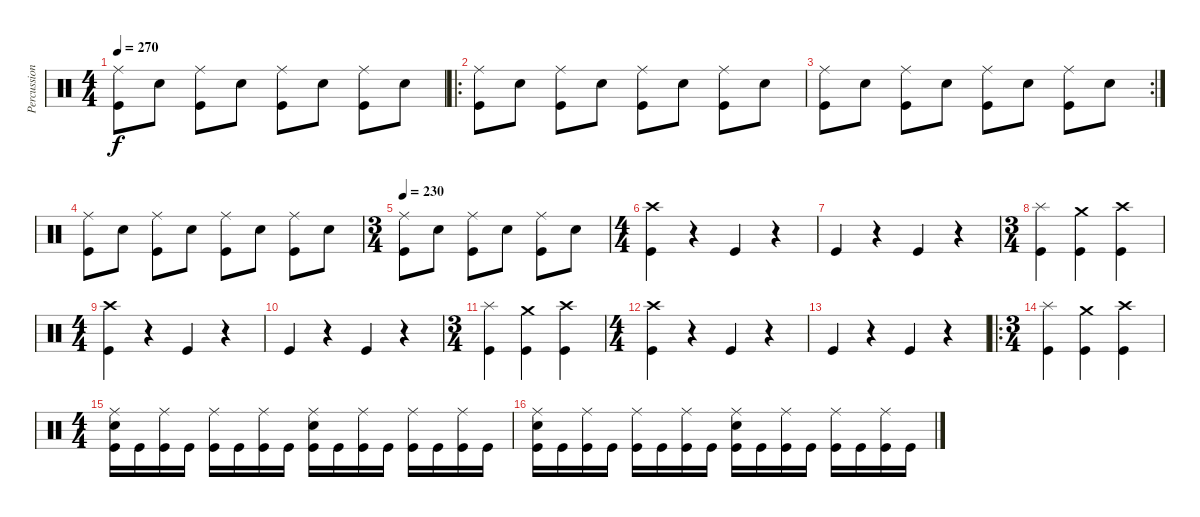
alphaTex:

\track ("Percussion" "Percussion") {instrument percussion}
\staff {score}
\articulation defaults
\ts (4 4)
\tempo 270
\clef neutral
\ks c
("Ride (middle)" "Kick (hit)").8{dy f} "Snare (hit) 2".8 ("Ride (middle)" "Kick (hit)").8 "Snare (hit) 2".8 ("Ride (middle)" "Kick (hit)").8 "Snare (hit) 2".8 ("Ride (middle)" "Kick (hit)").8 "Snare (hit) 2".8 |
\ro
("Ride (middle)" "Kick (hit)").8 "Snare (hit) 2".8 ("Ride (middle)" "Kick (hit)").8 "Snare (hit) 2".8 ("Ride (middle)" "Kick (hit)").8 "Snare (hit) 2".8 ("Ride (middle)" "Kick (hit)").8 "Snare (hit) 2".8 |
\rc 2
("Ride (middle)" "Kick (hit)").8 "Snare (hit) 2".8 ("Ride (middle)" "Kick (hit)").8 "Snare (hit) 2".8 ("Ride (middle)" "Kick (hit)").8 "Snare (hit) 2".8 ("Ride (middle)" "Kick (hit)").8 "Snare (hit) 2".8 |
("Ride (middle)" "Kick (hit)").8 "Snare (hit) 2".8 ("Ride (middle)" "Kick (hit)").8 "Snare (hit) 2".8 ("Ride (middle)" "Kick (hit)").8 "Snare (hit) 2".8 ("Ride (middle)" "Kick (hit)").8 "Snare (hit) 2".8 |
\ts (3 4)
\tempo 230
("Ride (middle)" "Kick (hit)").8 "Snare (hit) 2".8 ("Ride (middle)" "Kick (hit)").8 "Snare (hit) 2".8 ("Ride (middle)" "Kick (hit)").8 "Snare (hit) 2".8 |
\ts (4 4)
("Crash high (hit)" "Kick (hit)").4 r.4 "Kick (hit)".4 r.4 |
"Kick (hit)".4 r.4 "Kick (hit)".4 r.4 |
\ts (3 4)
("Splash (hit)" "Kick (hit)").4 ("Crash medium (hit)" "Kick (hit)").4 ("Crash high (hit)" "Kick (hit)").4 |
\ts (4 4)
("Crash high (hit)" "Kick (hit)").4 r.4 "Kick (hit)".4 r.4 |
"Kick (hit)".4 r.4 "Kick (hit)".4 r.4 |
\ts (3 4)
("Splash (hit)" "Kick (hit)").4 ("Crash medium (hit)" "Kick (hit)").4 ("Crash high (hit)" "Kick (hit)").4 |
\ts (4 4)
("Crash high (hit)" "Kick (hit)").4 r.4 "Kick (hit)".4 r.4 |
"Kick (hit)".4 r.4 "Kick (hit)".4 r.4 |
\ro
\ts (3 4)
("Splash (hit)" "Kick (hit)").4 ("Crash medium (hit)" "Kick (hit)").4 ("Crash high (hit)" "Kick (hit)").4 |
\ts (4 4)
("Ride (middle)" "Snare (hit) 2" "Kick (hit)").16 "Kick (hit)".16 ("Ride (middle)" "Kick (hit)").16 "Kick (hit)".16 ("Ride (middle)" "Kick (hit)").16 "Kick (hit)".16 ("Ride (middle)" "Kick (hit)").16 "Kick (hit)".16 ("Ride (middle)" "Snare (hit) 2" "Kick (hit)").16 "Kick (hit)".16 ("Ride (middle)" "Kick (hit)").16 "Kick (hit)".16 ("Ride (middle)" "Kick (hit)").16 "Kick (hit)".16 ("Ride (middle)" "Kick (hit)").16 "Kick (hit)".16 |
("Ride (middle)" "Snare (hit) 2" "Kick (hit)").16 "Kick (hit)".16 ("Ride (middle)" "Kick (hit)").16 "Kick (hit)".16 ("Ride (middle)" "Kick (hit)").16 "Kick (hit)".16 ("Ride (middle)" "Kick (hit)").16 "Kick (hit)".16 ("Ride (middle)" "Snare (hit) 2" "Kick (hit)").16 "Kick (hit)".16 ("Ride (middle)" "Kick (hit)").16 "Kick (hit)".16 ("Ride (middle)" "Kick (hit)").16 "Kick (hit)".16 ("Ride (middle)" "Kick (hit)").16 "Kick (hit)".16
